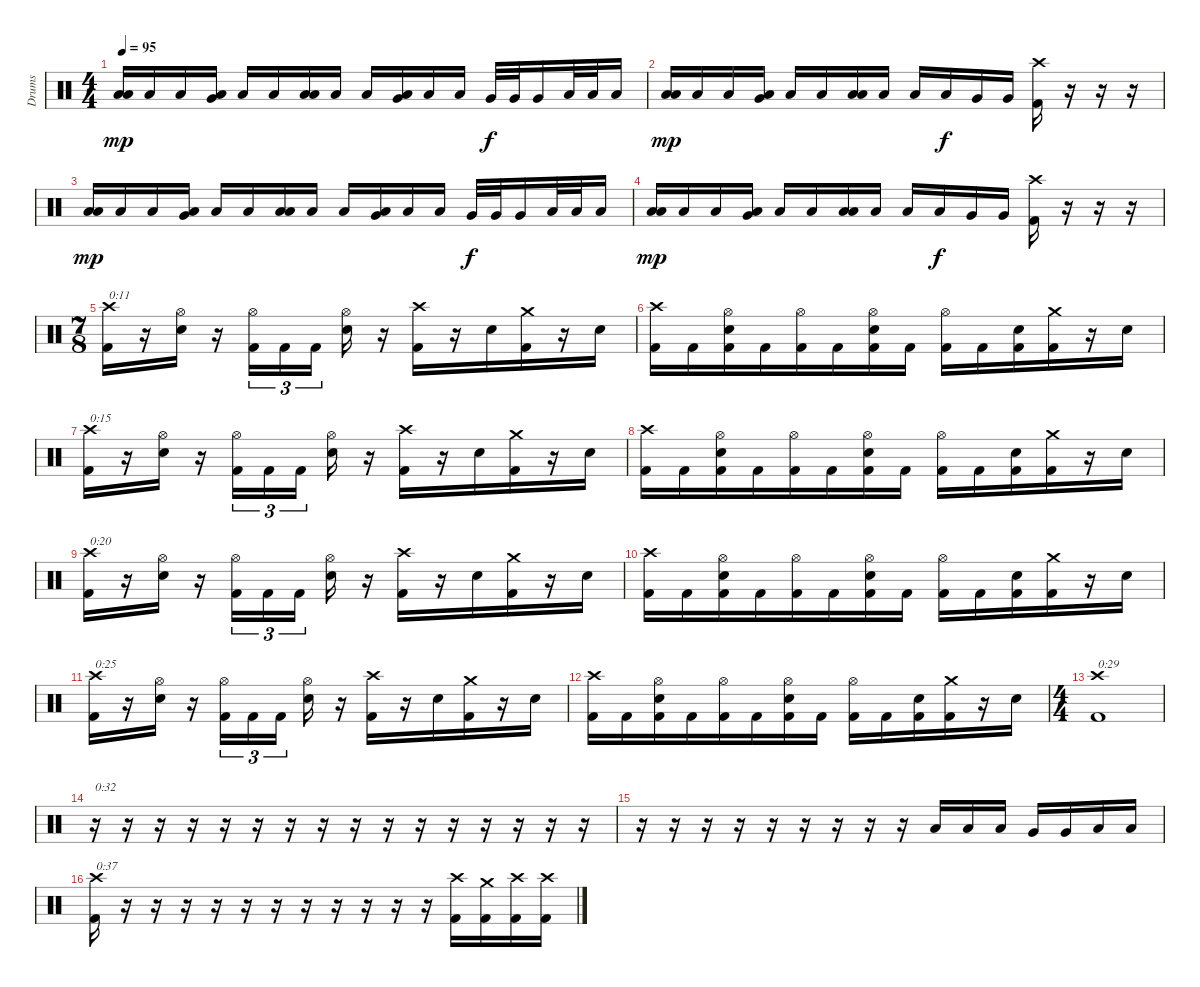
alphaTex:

\track ("Drums" "Drums") {instrument percussion}
\staff {score}
\articulation defaults
\ts (4 4)
\tempo 95
\clef neutral
\ks c
("Low Tom (hit)" "Low Floor Tom (hit)").16{dy mp} "Low Floor Tom (hit)".16 "Low Floor Tom (hit)".16 ("Very Low Tom (hit)" "Low Floor Tom (hit)").16 "Low Floor Tom (hit)".16 "Low Floor Tom (hit)".16 ("Low Tom (hit)" "Low Floor Tom (hit)").16 "Low Floor Tom (hit)".16 "Low Floor Tom (hit)".16 ("Very Low Tom (hit)" "Low Floor Tom (hit)").16 "Low Floor Tom (hit)".16 "Low Floor Tom (hit)".16 "Very Low Tom (hit)".32{dy f} "Very Low Tom (hit)".32 "Very Low Tom (hit)".16 "Low Floor Tom (hit)".32 "Low Floor Tom (hit)".32 "Low Floor Tom (hit)".16 |
("Low Tom (hit)" "Low Floor Tom (hit)").16{dy mp} "Low Floor Tom (hit)".16 "Low Floor Tom (hit)".16 ("Very Low Tom (hit)" "Low Floor Tom (hit)").16 "Low Floor Tom (hit)".16 "Low Floor Tom (hit)".16 ("Low Tom (hit)" "Low Floor Tom (hit)").16 "Low Floor Tom (hit)".16 "Low Floor Tom (hit)".16 "Low Tom (hit)".16{dy f} "Very Low Tom (hit)".16 "Very Low Tom (hit)".16 ("Crash high (hit)" "Kick (hit) 2").16 r.16 r.16 r.16 |
("Low Tom (hit)" "Low Floor Tom (hit)").16{dy mp} "Low Floor Tom (hit)".16 "Low Floor Tom (hit)".16 ("Very Low Tom (hit)" "Low Floor Tom (hit)").16 "Low Floor Tom (hit)".16 "Low Floor Tom (hit)".16 ("Low Tom (hit)" "Low Floor Tom (hit)").16 "Low Floor Tom (hit)".16 "Low Floor Tom (hit)".16 ("Very Low Tom (hit)" "Low Floor Tom (hit)").16 "Low Floor Tom (hit)".16 "Low Floor Tom (hit)".16 "Very Low Tom (hit)".32{dy f} "Very Low Tom (hit)".32 "Very Low Tom (hit)".16 "Low Floor Tom (hit)".32 "Low Floor Tom (hit)".32 "Low Floor Tom (hit)".16 |
("Low Tom (hit)" "Low Floor Tom (hit)").16{dy mp} "Low Floor Tom (hit)".16 "Low Floor Tom (hit)".16 ("Very Low Tom (hit)" "Low Floor Tom (hit)").16 "Low Floor Tom (hit)".16 "Low Floor Tom (hit)".16 ("Low Tom (hit)" "Low Floor Tom (hit)").16 "Low Floor Tom (hit)".16 "Low Floor Tom (hit)".16 "Low Tom (hit)".16{dy f} "Very Low Tom (hit)".16 "Very Low Tom (hit)".16 ("Crash high (hit)" "Kick (hit) 2").16 r.16 r.16 r.16 |
\ts (7 8)
("Crash high (hit)" "Kick (hit) 2").16{txt "0:11"} r.16 ("Hi-Hat (open)" "Electric Snare (hit)").16 r.16 ("Hi-Hat (open)" "Kick (hit) 2").16{tu (3 2)} "Kick (hit) 2".16{tu (3 2)} "Kick (hit) 2".16{tu (3 2)} ("Hi-Hat (open)" "Electric Snare (hit)").16 r.16 ("Crash high (hit)" "Kick (hit) 2").16 r.16 "Electric Snare (hit)".16 ("Crash medium (hit)" "Kick (hit) 2").16 r.16 "Electric Snare (hit)".16 |
("Crash high (hit)" "Kick (hit) 2").16 "Kick (hit) 2".16 ("Hi-Hat (open)" "Electric Snare (hit)" "Kick (hit) 2").16 "Kick (hit) 2".16 ("Hi-Hat (open)" "Kick (hit) 2").16 "Kick (hit) 2".16 ("Hi-Hat (open)" "Electric Snare (hit)" "Kick (hit) 2").16 "Kick (hit) 2".16 ("Hi-Hat (open)" "Kick (hit) 2").16 "Kick (hit) 2".16 ("Electric Snare (hit)" "Kick (hit) 2").16 ("Crash medium (hit)" "Kick (hit) 2").16 r.16 "Electric Snare (hit)".16 |
("Crash high (hit)" "Kick (hit) 2").16{txt "0:15"} r.16 ("Hi-Hat (open)" "Electric Snare (hit)").16 r.16 ("Hi-Hat (open)" "Kick (hit) 2").16{tu (3 2)} "Kick (hit) 2".16{tu (3 2)} "Kick (hit) 2".16{tu (3 2)} ("Hi-Hat (open)" "Electric Snare (hit)").16 r.16 ("Crash high (hit)" "Kick (hit) 2").16 r.16 "Electric Snare (hit)".16 ("Crash medium (hit)" "Kick (hit) 2").16 r.16 "Electric Snare (hit)".16 |
("Crash high (hit)" "Kick (hit) 2").16 "Kick (hit) 2".16 ("Hi-Hat (open)" "Electric Snare (hit)" "Kick (hit) 2").16 "Kick (hit) 2".16 ("Hi-Hat (open)" "Kick (hit) 2").16 "Kick (hit) 2".16 ("Hi-Hat (open)" "Electric Snare (hit)" "Kick (hit) 2").16 "Kick (hit) 2".16 ("Hi-Hat (open)" "Kick (hit) 2").16 "Kick (hit) 2".16 ("Electric Snare (hit)" "Kick (hit) 2").16 ("Crash medium (hit)" "Kick (hit) 2").16 r.16 "Electric Snare (hit)".16 |
("Crash high (hit)" "Kick (hit) 2").16{txt "0:20"} r.16 ("Hi-Hat (open)" "Electric Snare (hit)").16 r.16 ("Hi-Hat (open)" "Kick (hit) 2").16{tu (3 2)} "Kick (hit) 2".16{tu (3 2)} "Kick (hit) 2".16{tu (3 2)} ("Hi-Hat (open)" "Electric Snare (hit)").16 r.16 ("Crash high (hit)" "Kick (hit) 2").16 r.16 "Electric Snare (hit)".16 ("Crash medium (hit)" "Kick (hit) 2").16 r.16 "Electric Snare (hit)".16 |
("Crash high (hit)" "Kick (hit) 2").16 "Kick (hit) 2".16 ("Hi-Hat (open)" "Electric Snare (hit)" "Kick (hit) 2").16 "Kick (hit) 2".16 ("Hi-Hat (open)" "Kick (hit) 2").16 "Kick (hit) 2".16 ("Hi-Hat (open)" "Electric Snare (hit)" "Kick (hit) 2").16 "Kick (hit) 2".16 ("Hi-Hat (open)" "Kick (hit) 2").16 "Kick (hit) 2".16 ("Electric Snare (hit)" "Kick (hit) 2").16 ("Crash medium (hit)" "Kick (hit) 2").16 r.16 "Electric Snare (hit)".16 |
("Crash high (hit)" "Kick (hit) 2").16{txt "0:25"} r.16 ("Hi-Hat (open)" "Electric Snare (hit)").16 r.16 ("Hi-Hat (open)" "Kick (hit) 2").16{tu (3 2)} "Kick (hit) 2".16{tu (3 2)} "Kick (hit) 2".16{tu (3 2)} ("Hi-Hat (open)" "Electric Snare (hit)").16 r.16 ("Crash high (hit)" "Kick (hit) 2").16 r.16 "Electric Snare (hit)".16 ("Crash medium (hit)" "Kick (hit) 2").16 r.16 "Electric Snare (hit)".16 |
("Crash high (hit)" "Kick (hit) 2").16 "Kick (hit) 2".16 ("Hi-Hat (open)" "Electric Snare (hit)" "Kick (hit) 2").16 "Kick (hit) 2".16 ("Hi-Hat (open)" "Kick (hit) 2").16 "Kick (hit) 2".16 ("Hi-Hat (open)" "Electric Snare (hit)" "Kick (hit) 2").16 "Kick (hit) 2".16 ("Hi-Hat (open)" "Kick (hit) 2").16 "Kick (hit) 2".16 ("Electric Snare (hit)" "Kick (hit) 2").16 ("Crash medium (hit)" "Kick (hit) 2").16 r.16 "Electric Snare (hit)".16 |
\ts (4 4)
("Crash high (hit)" "Kick (hit) 2").1{txt "0:29"} |
r.16{txt "0:32"} r.16 r.16 r.16 r.16 r.16 r.16 r.16 r.16 r.16 r.16 r.16 r.16 r.16 r.16 r.16 |
r.16 r.16 r.16 r.16 r.16 r.16 r.16 r.16 r.16 "Low Tom (hit)".16 "Low Tom (hit)".16 "Low Tom (hit)".16 "Very Low Tom (hit)".16 "Very Low Tom (hit)".16 "Low Floor Tom (hit)".16 "Low Floor Tom (hit)".16 |
("Crash high (hit)" "Kick (hit) 2").16{txt "0:37"} r.16 r.16 r.16 r.16 r.16 r.16 r.16 r.16 r.16 r.16 r.16 ("Crash high (hit)" "Kick (hit) 2").16 ("Crash medium (hit)" "Kick (hit) 2").16 ("Crash high (hit)" "Kick (hit) 2").16 ("Crash high (hit)" "Kick (hit) 2").16
